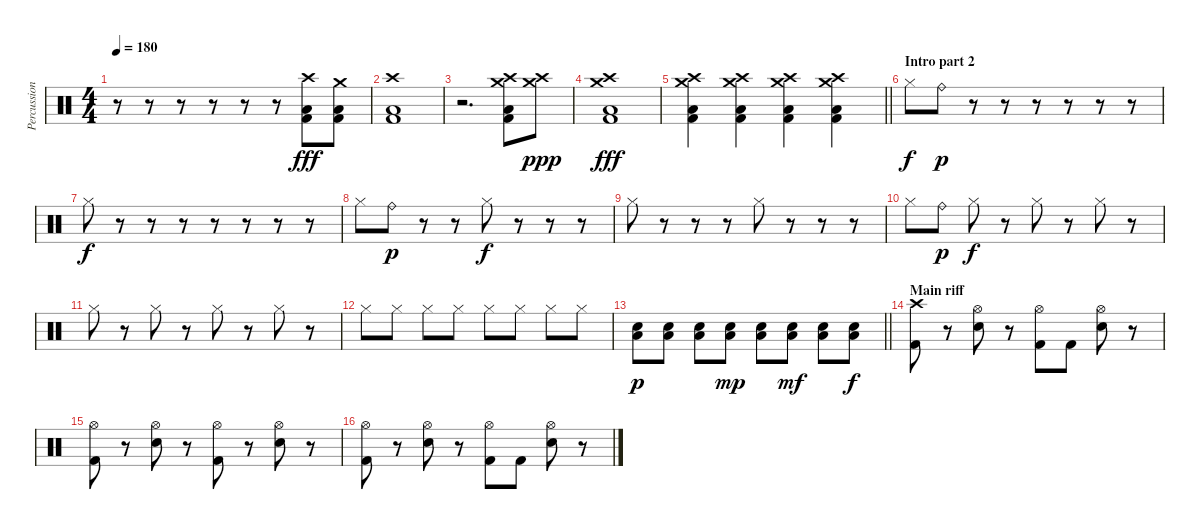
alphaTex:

\track ("Percussion" "Percussion") {instrument percussion}
\staff {score}
\articulation defaults
\ts (4 4)
\tempo 180
\clef neutral
\ks c
r.8{dy fff} r.8 r.8 r.8 r.8 r.8 ("Crash high (hit)" "Low Floor Tom (hit)" "Kick (hit) 2").8 ("Crash medium (hit)" "Low Floor Tom (hit)" "Kick (hit) 2").8 |
("Crash high (hit)" "Low Floor Tom (hit)" "Kick (hit) 2").1 |
r.2{d} ("Crash high (hit)" "Crash medium (hit)" "Low Floor Tom (hit)" "Kick (hit) 2").8 ("Crash high (hit)" "Crash medium (hit)").8{dy ppp} |
("Crash high (hit)" "Crash medium (hit)" "Low Floor Tom (hit)" "Kick (hit) 2").1{dy fff} |
\barLineRight lightlight
("Crash high (hit)" "Crash medium (hit)" "Low Floor Tom (hit)" "Kick (hit) 2").4 ("Crash high (hit)" "Crash medium (hit)" "Low Floor Tom (hit)" "Kick (hit) 2").4 ("Crash high (hit)" "Crash medium (hit)" "Low Floor Tom (hit)" "Kick (hit) 2").4 ("Crash high (hit)" "Crash medium (hit)" "Low Floor Tom (hit)" "Kick (hit) 2").4 |
\section ("" "Intro part 2")
"Hi-Hat (closed)".8{dy f} "Ride (bell)".8{dy p} r.8 r.8 r.8 r.8 r.8 r.8 |
"Hi-Hat (closed)".8{dy f} r.8 r.8 r.8 r.8 r.8 r.8 r.8 |
"Hi-Hat (closed)".8 "Ride (bell)".8{dy p} r.8 r.8 "Hi-Hat (closed)".8{dy f} r.8 r.8 r.8 |
"Hi-Hat (closed)".8 r.8 r.8 r.8 "Hi-Hat (closed)".8 r.8 r.8 r.8 |
"Hi-Hat (closed)".8 "Ride (bell)".8{dy p} "Hi-Hat (closed)".8{dy f} r.8 "Hi-Hat (closed)".8 r.8 "Hi-Hat (closed)".8 r.8 |
"Hi-Hat (closed)".8 r.8 "Hi-Hat (closed)".8 r.8 "Hi-Hat (closed)".8 r.8 "Hi-Hat (closed)".8 r.8 |
"Hi-Hat (closed)".8 "Hi-Hat (closed)".8 "Hi-Hat (closed)".8 "Hi-Hat (closed)".8 "Hi-Hat (closed)".8 "Hi-Hat (closed)".8 "Hi-Hat (closed)".8 "Hi-Hat (closed)".8 |
\barLineRight lightlight
("Snare (hit) 2" "Low Floor Tom (hit)").8{dy p} ("Snare (hit) 2" "Low Floor Tom (hit)").8 ("Snare (hit) 2" "Low Floor Tom (hit)").8 ("Snare (hit) 2" "Low Floor Tom (hit)").8{dy mp} ("Snare (hit) 2" "Low Floor Tom (hit)").8 ("Snare (hit) 2" "Low Floor Tom (hit)").8{dy mf} ("Snare (hit) 2" "Low Floor Tom (hit)").8 ("Snare (hit) 2" "Low Floor Tom (hit)").8{dy f} |
\section ("" "Main riff")
("Crash high (hit)" "Kick (hit) 2").8 r.8 ("Hi-Hat (open)" "Snare (hit) 2").8 r.8 ("Hi-Hat (open)" "Kick (hit) 2").8 "Kick (hit) 2".8 ("Hi-Hat (open)" "Snare (hit) 2").8 r.8 |
("Hi-Hat (open)" "Kick (hit) 2").8 r.8 ("Hi-Hat (open)" "Snare (hit) 2").8 r.8 ("Hi-Hat (open)" "Kick (hit) 2").8 r.8 ("Hi-Hat (open)" "Snare (hit) 2").8 r.8 |
("Hi-Hat (open)" "Kick (hit) 2").8 r.8 ("Hi-Hat (open)" "Snare (hit) 2").8 r.8 ("Hi-Hat (open)" "Kick (hit) 2").8 "Kick (hit) 2".8 ("Hi-Hat (open)" "Snare (hit) 2").8 r.8
